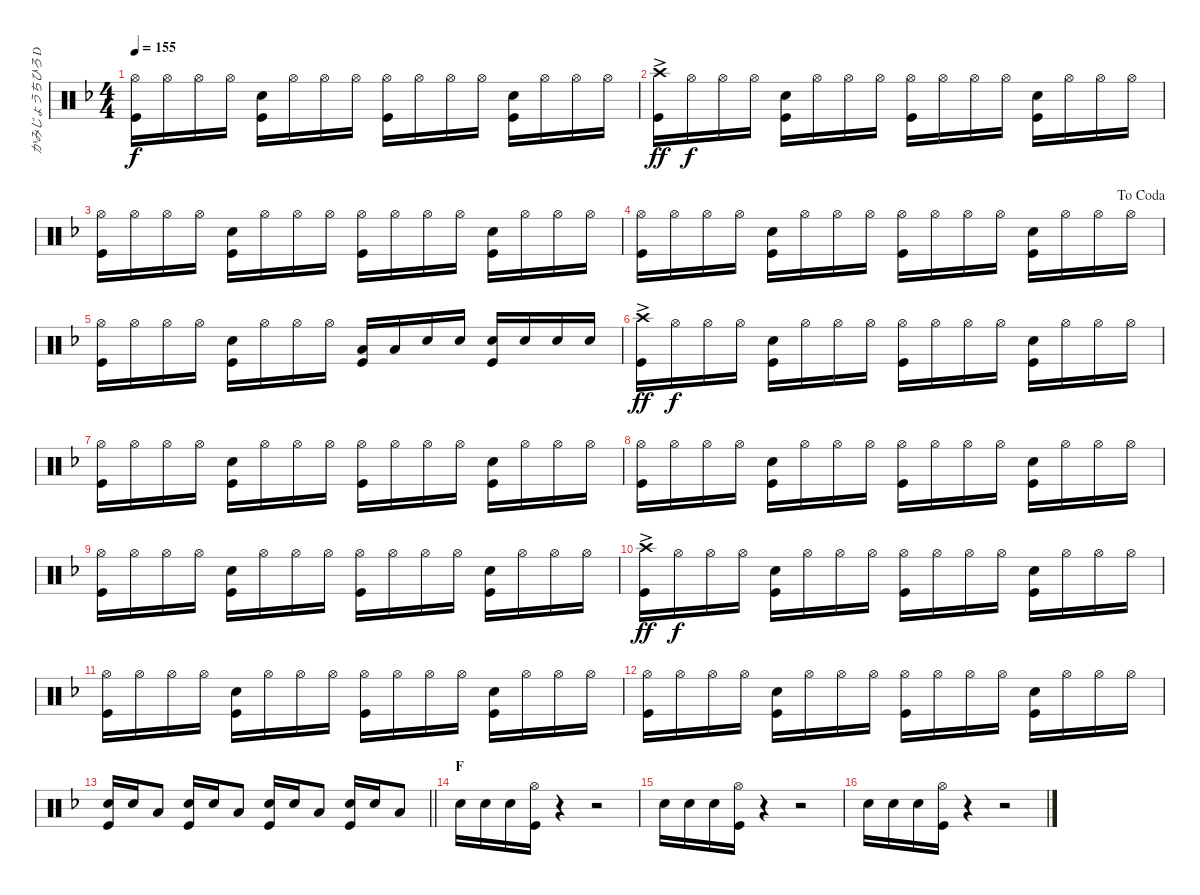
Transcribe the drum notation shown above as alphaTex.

\track ("かみじょうちひろ DRUMS" "かみじょうちひろ D") {instrument percussion}
\staff {score}
\articulation defaults
\ts (4 4)
\tempo 155
\clef neutral
\ks f
("Hi-Hat (open)" "Kick (hit)").16{dy f} "Hi-Hat (open)".16 "Hi-Hat (open)".16 "Hi-Hat (open)".16 ("Snare (hit) 2" "Kick (hit)").16 "Hi-Hat (open)".16 "Hi-Hat (open)".16 "Hi-Hat (open)".16 ("Hi-Hat (open)" "Kick (hit)").16 "Hi-Hat (open)".16 "Hi-Hat (open)".16 "Hi-Hat (open)".16 ("Snare (hit) 2" "Kick (hit)").16 "Hi-Hat (open)".16 "Hi-Hat (open)".16 "Hi-Hat (open)".16 |
("Crash high (hit)"{ac} "Kick (hit)").16{dy ff} "Hi-Hat (open)".16{dy f} "Hi-Hat (open)".16 "Hi-Hat (open)".16 ("Snare (hit) 2" "Kick (hit)").16 "Hi-Hat (open)".16 "Hi-Hat (open)".16 "Hi-Hat (open)".16 ("Hi-Hat (open)" "Kick (hit)").16 "Hi-Hat (open)".16 "Hi-Hat (open)".16 "Hi-Hat (open)".16 ("Snare (hit) 2" "Kick (hit)").16 "Hi-Hat (open)".16 "Hi-Hat (open)".16 "Hi-Hat (open)".16 |
("Hi-Hat (open)" "Kick (hit)").16 "Hi-Hat (open)".16 "Hi-Hat (open)".16 "Hi-Hat (open)".16 ("Snare (hit) 2" "Kick (hit)").16 "Hi-Hat (open)".16 "Hi-Hat (open)".16 "Hi-Hat (open)".16 ("Hi-Hat (open)" "Kick (hit)").16 "Hi-Hat (open)".16 "Hi-Hat (open)".16 "Hi-Hat (open)".16 ("Snare (hit) 2" "Kick (hit)").16 "Hi-Hat (open)".16 "Hi-Hat (open)".16 "Hi-Hat (open)".16 |
\jump dacoda
("Hi-Hat (open)" "Kick (hit)").16 "Hi-Hat (open)".16 "Hi-Hat (open)".16 "Hi-Hat (open)".16 ("Snare (hit) 2" "Kick (hit)").16 "Hi-Hat (open)".16 "Hi-Hat (open)".16 "Hi-Hat (open)".16 ("Hi-Hat (open)" "Kick (hit)").16 "Hi-Hat (open)".16 "Hi-Hat (open)".16 "Hi-Hat (open)".16 ("Snare (hit) 2" "Kick (hit)").16 "Hi-Hat (open)".16 "Hi-Hat (open)".16 "Hi-Hat (open)".16 |
("Hi-Hat (open)" "Kick (hit)").16 "Hi-Hat (open)".16 "Hi-Hat (open)".16 "Hi-Hat (open)".16 ("Snare (hit) 2" "Kick (hit)").16 "Hi-Hat (open)".16 "Hi-Hat (open)".16 "Hi-Hat (open)".16 ("Low Tom (hit)" "Kick (hit)").16 "Low Tom (hit)".16 "Snare (hit) 2".16 "Snare (hit) 2".16 ("Snare (hit) 2" "Kick (hit)").16 "Snare (hit) 2".16 "Snare (hit) 2".16 "Snare (hit) 2".16 |
("Crash high (hit)"{ac} "Kick (hit)").16{dy ff} "Hi-Hat (open)".16{dy f} "Hi-Hat (open)".16 "Hi-Hat (open)".16 ("Snare (hit) 2" "Kick (hit)").16 "Hi-Hat (open)".16 "Hi-Hat (open)".16 "Hi-Hat (open)".16 ("Hi-Hat (open)" "Kick (hit)").16 "Hi-Hat (open)".16 "Hi-Hat (open)".16 "Hi-Hat (open)".16 ("Snare (hit) 2" "Kick (hit)").16 "Hi-Hat (open)".16 "Hi-Hat (open)".16 "Hi-Hat (open)".16 |
("Hi-Hat (open)" "Kick (hit)").16 "Hi-Hat (open)".16 "Hi-Hat (open)".16 "Hi-Hat (open)".16 ("Snare (hit) 2" "Kick (hit)").16 "Hi-Hat (open)".16 "Hi-Hat (open)".16 "Hi-Hat (open)".16 ("Hi-Hat (open)" "Kick (hit)").16 "Hi-Hat (open)".16 "Hi-Hat (open)".16 "Hi-Hat (open)".16 ("Snare (hit) 2" "Kick (hit)").16 "Hi-Hat (open)".16 "Hi-Hat (open)".16 "Hi-Hat (open)".16 |
("Hi-Hat (open)" "Kick (hit)").16 "Hi-Hat (open)".16 "Hi-Hat (open)".16 "Hi-Hat (open)".16 ("Snare (hit) 2" "Kick (hit)").16 "Hi-Hat (open)".16 "Hi-Hat (open)".16 "Hi-Hat (open)".16 ("Hi-Hat (open)" "Kick (hit)").16 "Hi-Hat (open)".16 "Hi-Hat (open)".16 "Hi-Hat (open)".16 ("Snare (hit) 2" "Kick (hit)").16 "Hi-Hat (open)".16 "Hi-Hat (open)".16 "Hi-Hat (open)".16 |
("Hi-Hat (open)" "Kick (hit)").16 "Hi-Hat (open)".16 "Hi-Hat (open)".16 "Hi-Hat (open)".16 ("Snare (hit) 2" "Kick (hit)").16 "Hi-Hat (open)".16 "Hi-Hat (open)".16 "Hi-Hat (open)".16 ("Hi-Hat (open)" "Kick (hit)").16 "Hi-Hat (open)".16 "Hi-Hat (open)".16 "Hi-Hat (open)".16 ("Snare (hit) 2" "Kick (hit)").16 "Hi-Hat (open)".16 "Hi-Hat (open)".16 "Hi-Hat (open)".16 |
("Crash high (hit)"{ac} "Kick (hit)").16{dy ff} "Hi-Hat (open)".16{dy f} "Hi-Hat (open)".16 "Hi-Hat (open)".16 ("Snare (hit) 2" "Kick (hit)").16 "Hi-Hat (open)".16 "Hi-Hat (open)".16 "Hi-Hat (open)".16 ("Hi-Hat (open)" "Kick (hit)").16 "Hi-Hat (open)".16 "Hi-Hat (open)".16 "Hi-Hat (open)".16 ("Snare (hit) 2" "Kick (hit)").16 "Hi-Hat (open)".16 "Hi-Hat (open)".16 "Hi-Hat (open)".16 |
("Hi-Hat (open)" "Kick (hit)").16 "Hi-Hat (open)".16 "Hi-Hat (open)".16 "Hi-Hat (open)".16 ("Snare (hit) 2" "Kick (hit)").16 "Hi-Hat (open)".16 "Hi-Hat (open)".16 "Hi-Hat (open)".16 ("Hi-Hat (open)" "Kick (hit)").16 "Hi-Hat (open)".16 "Hi-Hat (open)".16 "Hi-Hat (open)".16 ("Snare (hit) 2" "Kick (hit)").16 "Hi-Hat (open)".16 "Hi-Hat (open)".16 "Hi-Hat (open)".16 |
("Hi-Hat (open)" "Kick (hit)").16 "Hi-Hat (open)".16 "Hi-Hat (open)".16 "Hi-Hat (open)".16 ("Snare (hit) 2" "Kick (hit)").16 "Hi-Hat (open)".16 "Hi-Hat (open)".16 "Hi-Hat (open)".16 ("Hi-Hat (open)" "Kick (hit)").16 "Hi-Hat (open)".16 "Hi-Hat (open)".16 "Hi-Hat (open)".16 ("Snare (hit) 2" "Kick (hit)").16 "Hi-Hat (open)".16 "Hi-Hat (open)".16 "Hi-Hat (open)".16 |
\barLineRight lightlight
("Snare (hit) 2" "Kick (hit)").16 "Snare (hit) 2".16 "Low Tom (hit)".8 ("Snare (hit) 2" "Kick (hit)").16 "Snare (hit) 2".16 "Low Tom (hit)".8 ("Snare (hit) 2" "Kick (hit)").16 "Snare (hit) 2".16 "Low Tom (hit)".8 ("Snare (hit) 2" "Kick (hit)").16 "Snare (hit) 2".16 "Low Tom (hit)".8 |
\section ("" "F")
"Snare (hit) 2".16 "Snare (hit) 2".16 "Snare (hit) 2".16 ("Hi-Hat (open)" "Kick (hit)").16 r.4 r.2 |
"Snare (hit) 2".16 "Snare (hit) 2".16 "Snare (hit) 2".16 ("Hi-Hat (open)" "Kick (hit)").16 r.4 r.2 |
"Snare (hit) 2".16 "Snare (hit) 2".16 "Snare (hit) 2".16 ("Hi-Hat (open)" "Kick (hit)").16 r.4 r.2
